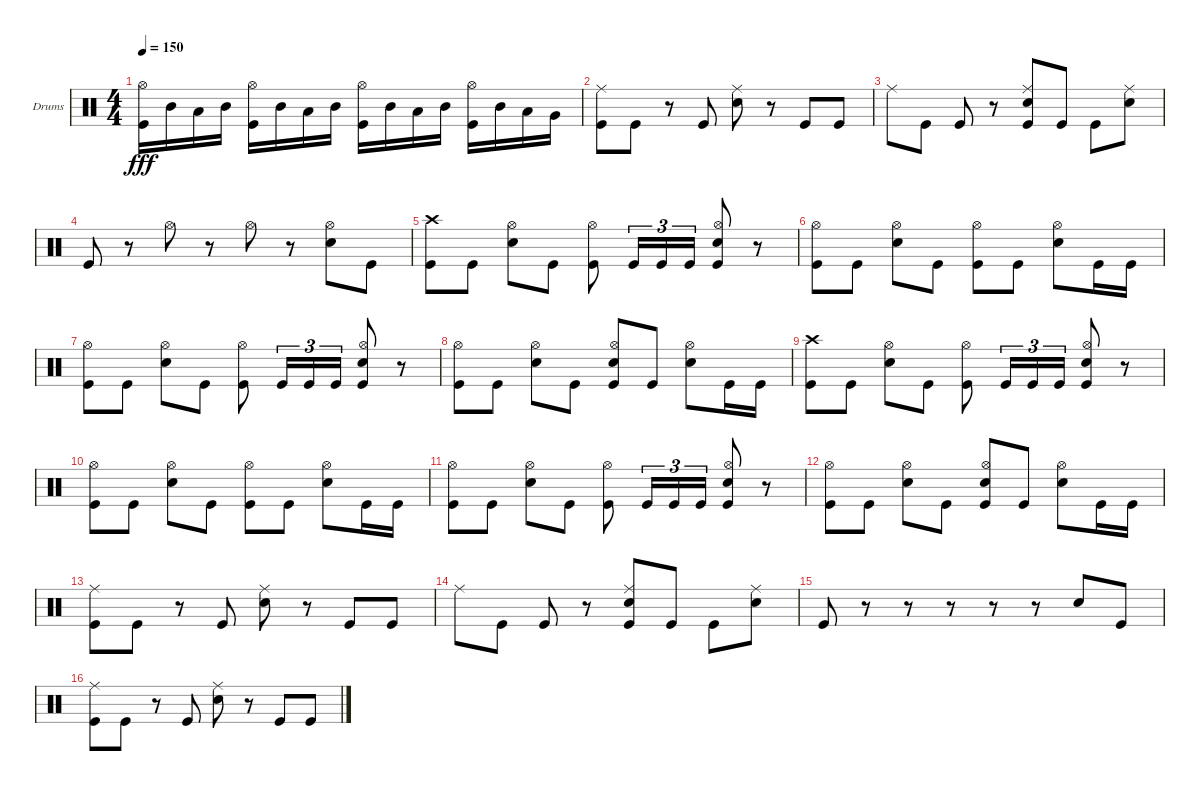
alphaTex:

\bracketExtendMode groupsimilarinstruments
\firstSystemTrackNameOrientation horizontal
\otherSystemsTrackNameOrientation horizontal
\track ("Corey" "Drums") {instrument percussion}
\staff {score}
\articulation defaults
\ts (4 4)
\tempo 150
\clef neutral
\ks c
("Kick (hit)" "Hi-Hat (open)").16{dy fff} "Mid Tom (hit)".16 "Low Tom (hit)".16 "Mid Tom (hit)".16 ("Kick (hit)" "Hi-Hat (open)").16 "Mid Tom (hit)".16 "Low Tom (hit)".16 "Mid Tom (hit)".16 ("Kick (hit)" "Hi-Hat (open)").16 "Mid Tom (hit)".16 "Low Tom (hit)".16 "Mid Tom (hit)".16 ("Kick (hit)" "Hi-Hat (open)").16 "Mid Tom (hit)".16 "Low Tom (hit)".16 "Very Low Tom (hit)".16 |
("Kick (hit)" "Ride (middle)").8 "Kick (hit)".8 r.8 "Kick (hit)".8 ("Snare (hit) 2" "Ride (middle)").8 r.8 "Kick (hit)".8 "Kick (hit)".8 |
"Ride (middle)".8 "Kick (hit)".8 "Kick (hit)".8 r.8 ("Kick (hit)" "Ride (middle)" "Snare (hit) 2").8 "Kick (hit)".8 "Kick (hit)".8 ("Snare (hit) 2" "Ride (middle)").8 |
"Kick (hit)".8 r.8 "Hi-Hat (open)".8 r.8 "Hi-Hat (open)".8 r.8 ("Hi-Hat (open)" "Snare (hit) 2").8 "Kick (hit)".8 |
("Kick (hit)" "Crash high (hit)").8 "Kick (hit)".8 ("Snare (hit) 2" "Hi-Hat (open)").8 "Kick (hit)".8 ("Kick (hit)" "Hi-Hat (open)").8 "Kick (hit)".16{tu (3 2)} "Kick (hit)".16{tu (3 2)} "Kick (hit)".16{tu (3 2)} ("Kick (hit)" "Snare (hit) 2" "Hi-Hat (open)").8 r.8 |
("Kick (hit)" "Hi-Hat (open)").8 "Kick (hit)".8 ("Snare (hit) 2" "Hi-Hat (open)").8 "Kick (hit)".8 ("Kick (hit)" "Hi-Hat (open)").8 "Kick (hit)".8 ("Snare (hit) 2" "Hi-Hat (open)").8 "Kick (hit)".16 "Kick (hit)".16 |
("Kick (hit)" "Hi-Hat (open)").8 "Kick (hit)".8 ("Snare (hit) 2" "Hi-Hat (open)").8 "Kick (hit)".8 ("Kick (hit)" "Hi-Hat (open)").8 "Kick (hit)".16{tu (3 2)} "Kick (hit)".16{tu (3 2)} "Kick (hit)".16{tu (3 2)} ("Kick (hit)" "Snare (hit) 2" "Hi-Hat (open)").8 r.8 |
("Kick (hit)" "Hi-Hat (open)").8 "Kick (hit)".8 ("Snare (hit) 2" "Hi-Hat (open)").8 "Kick (hit)".8 ("Kick (hit)" "Hi-Hat (open)" "Snare (hit) 2").8 "Kick (hit)".8 ("Snare (hit) 2" "Hi-Hat (open)").8 "Kick (hit)".16 "Kick (hit)".16 |
("Kick (hit)" "Crash high (hit)").8 "Kick (hit)".8 ("Snare (hit) 2" "Hi-Hat (open)").8 "Kick (hit)".8 ("Kick (hit)" "Hi-Hat (open)").8 "Kick (hit)".16{tu (3 2)} "Kick (hit)".16{tu (3 2)} "Kick (hit)".16{tu (3 2)} ("Kick (hit)" "Snare (hit) 2" "Hi-Hat (open)").8 r.8 |
("Kick (hit)" "Hi-Hat (open)").8 "Kick (hit)".8 ("Snare (hit) 2" "Hi-Hat (open)").8 "Kick (hit)".8 ("Kick (hit)" "Hi-Hat (open)").8 "Kick (hit)".8 ("Snare (hit) 2" "Hi-Hat (open)").8 "Kick (hit)".16 "Kick (hit)".16 |
("Kick (hit)" "Hi-Hat (open)").8 "Kick (hit)".8 ("Snare (hit) 2" "Hi-Hat (open)").8 "Kick (hit)".8 ("Kick (hit)" "Hi-Hat (open)").8 "Kick (hit)".16{tu (3 2)} "Kick (hit)".16{tu (3 2)} "Kick (hit)".16{tu (3 2)} ("Kick (hit)" "Snare (hit) 2" "Hi-Hat (open)").8 r.8 |
("Kick (hit)" "Hi-Hat (open)").8 "Kick (hit)".8 ("Snare (hit) 2" "Hi-Hat (open)").8 "Kick (hit)".8 ("Kick (hit)" "Hi-Hat (open)" "Snare (hit) 2").8 "Kick (hit)".8 ("Snare (hit) 2" "Hi-Hat (open)").8 "Kick (hit)".16 "Kick (hit)".16 |
("Kick (hit)" "Ride (middle)").8 "Kick (hit)".8 r.8 "Kick (hit)".8 ("Snare (hit) 2" "Ride (middle)").8 r.8 "Kick (hit)".8 "Kick (hit)".8 |
"Ride (middle)".8 "Kick (hit)".8 "Kick (hit)".8 r.8 ("Kick (hit)" "Ride (middle)" "Snare (hit) 2").8 "Kick (hit)".8 "Kick (hit)".8 ("Snare (hit) 2" "Ride (middle)").8 |
"Kick (hit)".8 r.8 r.8 r.8 r.8 r.8 "Snare (hit) 2".8 "Kick (hit)".8 |
("Kick (hit)" "Ride (middle)").8 "Kick (hit)".8 r.8 "Kick (hit)".8 ("Snare (hit) 2" "Ride (middle)").8 r.8 "Kick (hit)".8 "Kick (hit)".8
